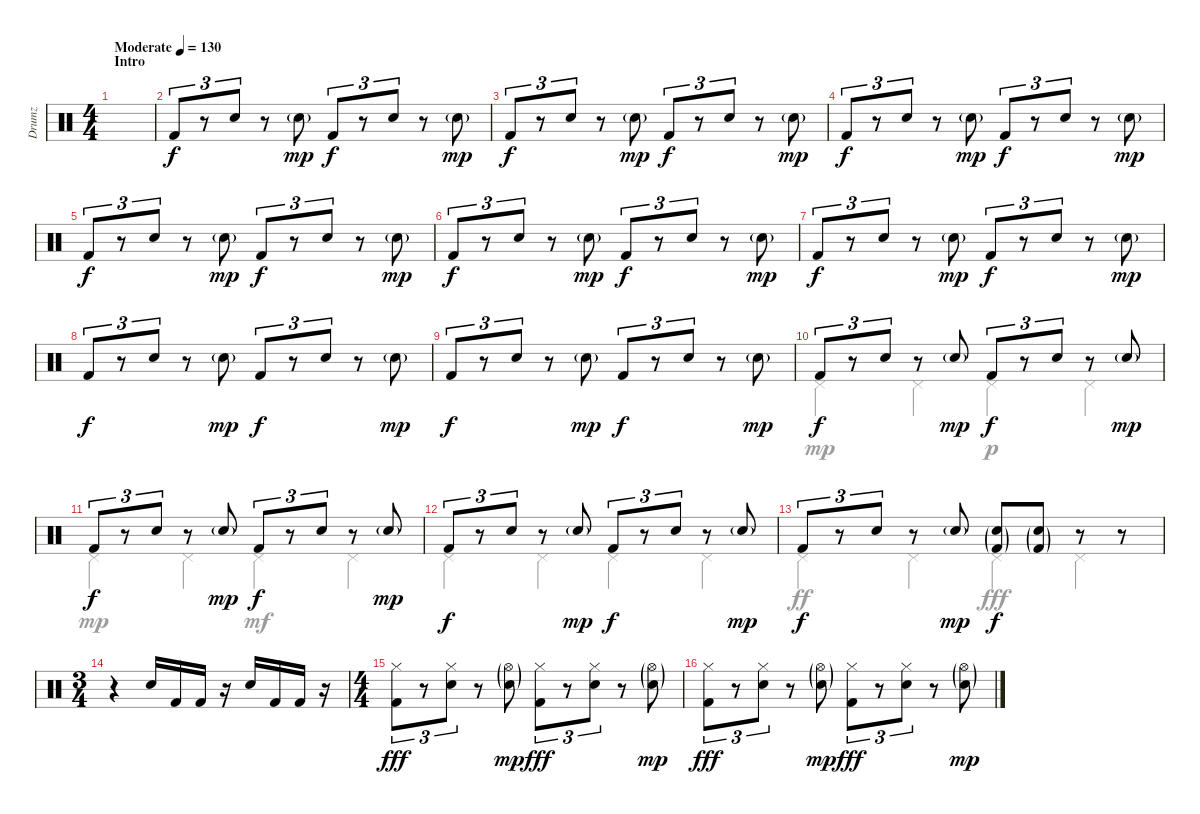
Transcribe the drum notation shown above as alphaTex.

\track ("Drumz" "Drumz") {instrument percussion}
\staff {score}
\articulation defaults
\voice
\ts (4 4)
\section ("" "Intro")
\tempo (130 "Moderate")
\clef neutral
\ks c
|
"Kick (hit) 2".8{tu (3 2)} r.8{tu (3 2)} "Snare (hit) 2".8{tu (3 2)} r.8 "Snare (hit) 2"{g}.8{dy mp} "Kick (hit) 2".8{tu (3 2) dy f} r.8{tu (3 2)} "Snare (hit) 2".8{tu (3 2)} r.8 "Snare (hit) 2"{g}.8{dy mp} |
"Kick (hit) 2".8{tu (3 2) dy f} r.8{tu (3 2)} "Snare (hit) 2".8{tu (3 2)} r.8 "Snare (hit) 2"{g}.8{dy mp} "Kick (hit) 2".8{tu (3 2) dy f} r.8{tu (3 2)} "Snare (hit) 2".8{tu (3 2)} r.8 "Snare (hit) 2"{g}.8{dy mp} |
"Kick (hit) 2".8{tu (3 2) dy f} r.8{tu (3 2)} "Snare (hit) 2".8{tu (3 2)} r.8 "Snare (hit) 2"{g}.8{dy mp} "Kick (hit) 2".8{tu (3 2) dy f} r.8{tu (3 2)} "Snare (hit) 2".8{tu (3 2)} r.8 "Snare (hit) 2"{g}.8{dy mp} |
"Kick (hit) 2".8{tu (3 2) dy f} r.8{tu (3 2)} "Snare (hit) 2".8{tu (3 2)} r.8 "Snare (hit) 2"{g}.8{dy mp} "Kick (hit) 2".8{tu (3 2) dy f} r.8{tu (3 2)} "Snare (hit) 2".8{tu (3 2)} r.8 "Snare (hit) 2"{g}.8{dy mp} |
"Kick (hit) 2".8{tu (3 2) dy f} r.8{tu (3 2)} "Snare (hit) 2".8{tu (3 2)} r.8 "Snare (hit) 2"{g}.8{dy mp} "Kick (hit) 2".8{tu (3 2) dy f} r.8{tu (3 2)} "Snare (hit) 2".8{tu (3 2)} r.8 "Snare (hit) 2"{g}.8{dy mp} |
"Kick (hit) 2".8{tu (3 2) dy f} r.8{tu (3 2)} "Snare (hit) 2".8{tu (3 2)} r.8 "Snare (hit) 2"{g}.8{dy mp} "Kick (hit) 2".8{tu (3 2) dy f} r.8{tu (3 2)} "Snare (hit) 2".8{tu (3 2)} r.8 "Snare (hit) 2"{g}.8{dy mp} |
"Kick (hit) 2".8{tu (3 2) dy f} r.8{tu (3 2)} "Snare (hit) 2".8{tu (3 2)} r.8 "Snare (hit) 2"{g}.8{dy mp} "Kick (hit) 2".8{tu (3 2) dy f} r.8{tu (3 2)} "Snare (hit) 2".8{tu (3 2)} r.8 "Snare (hit) 2"{g}.8{dy mp} |
"Kick (hit) 2".8{tu (3 2) dy f} r.8{tu (3 2)} "Snare (hit) 2".8{tu (3 2)} r.8 "Snare (hit) 2"{g}.8{dy mp} "Kick (hit) 2".8{tu (3 2) dy f} r.8{tu (3 2)} "Snare (hit) 2".8{tu (3 2)} r.8 "Snare (hit) 2"{g}.8{dy mp} |
"Kick (hit) 2".8{tu (3 2) dy f} r.8{tu (3 2)} "Snare (hit) 2".8{tu (3 2)} r.8 "Snare (hit) 2"{g}.8{dy mp} "Kick (hit) 2".8{tu (3 2) dy f} r.8{tu (3 2)} "Snare (hit) 2".8{tu (3 2)} r.8 "Snare (hit) 2"{g}.8{dy mp} |
"Kick (hit) 2".8{tu (3 2) dy f} r.8{tu (3 2)} "Snare (hit) 2".8{tu (3 2)} r.8 "Snare (hit) 2"{g}.8{dy mp} "Kick (hit) 2".8{tu (3 2) dy f} r.8{tu (3 2)} "Snare (hit) 2".8{tu (3 2)} r.8 "Snare (hit) 2"{g}.8{dy mp} |
"Kick (hit) 2".8{tu (3 2) dy f} r.8{tu (3 2)} "Snare (hit) 2".8{tu (3 2)} r.8 "Snare (hit) 2"{g}.8{dy mp} "Kick (hit) 2".8{tu (3 2) dy f} r.8{tu (3 2)} "Snare (hit) 2".8{tu (3 2)} r.8 "Snare (hit) 2"{g}.8{dy mp} |
"Kick (hit) 2".8{tu (3 2) dy f} r.8{tu (3 2)} "Snare (hit) 2".8{tu (3 2)} r.8 "Snare (hit) 2"{g}.8{dy mp} ("Snare (hit) 2"{g} "Kick (hit) 2"{g}).8{dy f} ("Snare (hit) 2"{g} "Kick (hit) 2"{g}).8 r.8 r.8 |
\ts (3 4)
r.4 "Electric Snare (hit)".16 "Kick (hit) 2".16 "Kick (hit) 2".16 r.16 "Electric Snare (hit)".16 "Kick (hit) 2".16 "Kick (hit) 2".16 r.16 |
\ts (4 4)
("Hi-Hat (closed)" "Kick (hit) 2").8{tu (3 2) dy fff} r.8{tu (3 2)} ("Hi-Hat (closed)" "Snare (hit) 2").8{tu (3 2)} r.8 ("Hi-Hat (open)"{g} "Snare (hit) 2"{g}).8{dy mp} ("Hi-Hat (closed)" "Kick (hit) 2").8{tu (3 2) dy fff} r.8{tu (3 2)} ("Hi-Hat (closed)" "Snare (hit) 2").8{tu (3 2)} r.8 ("Hi-Hat (open)"{g} "Snare (hit) 2"{g}).8{dy mp} |
("Hi-Hat (closed)" "Kick (hit) 2").8{tu (3 2) dy fff} r.8{tu (3 2)} ("Hi-Hat (closed)" "Snare (hit) 2").8{tu (3 2)} r.8 ("Hi-Hat (open)"{g} "Snare (hit) 2"{g}).8{dy mp} ("Hi-Hat (closed)" "Kick (hit) 2").8{tu (3 2) dy fff} r.8{tu (3 2)} ("Hi-Hat (closed)" "Snare (hit) 2").8{tu (3 2)} r.8 ("Hi-Hat (open)"{g} "Snare (hit) 2"{g}).8{dy mp}
\voice
\clef neutral
\ottava regular
\simile none
\ks c
|
|
|
|
|
|
|
|
|
"Pedal Hi-Hat (hit)".4 "Pedal Hi-Hat (hit)".4 "Pedal Hi-Hat (hit)".4{dy p} "Pedal Hi-Hat (hit)".4 |
"Pedal Hi-Hat (hit)".4{dy mp} "Pedal Hi-Hat (hit)".4 "Pedal Hi-Hat (hit)".4{dy mf} "Pedal Hi-Hat (hit)".4 |
"Pedal Hi-Hat (hit)".4 "Pedal Hi-Hat (hit)".4 "Pedal Hi-Hat (hit)".4{dy f} "Pedal Hi-Hat (hit)".4 |
"Pedal Hi-Hat (hit)".4{dy ff} "Pedal Hi-Hat (hit)".4 "Pedal Hi-Hat (hit)".4{dy fff} "Pedal Hi-Hat (hit)".4 |
|
|
